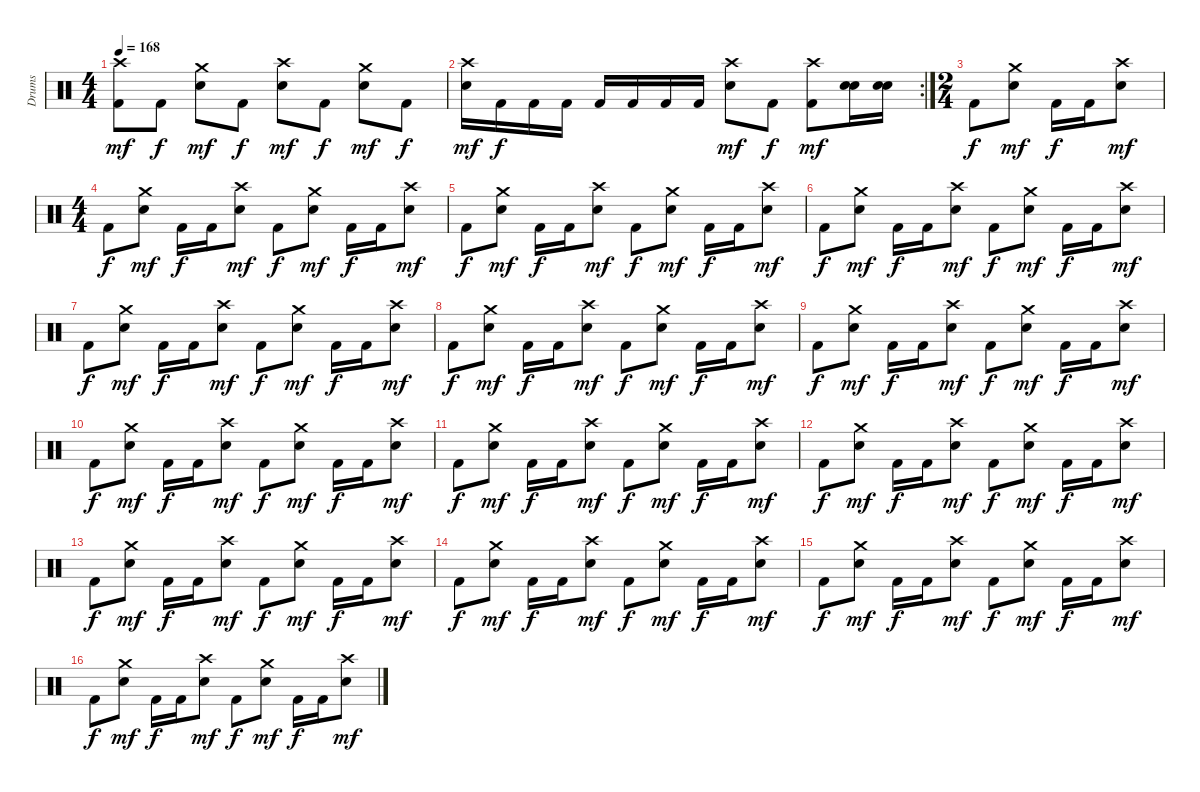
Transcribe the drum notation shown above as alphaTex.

\track ("Drums" "Drums") {instrument percussion}
\staff {score}
\articulation defaults
\ts (4 4)
\tempo 168
\clef neutral
\ks c
("Crash high (hit)" "Kick (hit) 2").8{dy mf} "Kick (hit) 2".8{dy f} ("Crash medium (hit)" "Snare (hit) 2").8{dy mf} "Kick (hit) 2".8{dy f} ("Crash high (hit)" "Snare (hit) 2").8{dy mf} "Kick (hit) 2".8{dy f} ("Crash medium (hit)" "Snare (hit) 2").8{dy mf} "Kick (hit) 2".8{dy f} |
\rc 2
("Crash high (hit)" "Snare (hit) 2").16{dy mf} "Kick (hit) 2".16{dy f} "Kick (hit) 2".16 "Kick (hit) 2".16 "Kick (hit) 2".16 "Kick (hit) 2".16 "Kick (hit) 2".16 "Kick (hit) 2".16 ("Crash high (hit)" "Snare (hit) 2").8{dy mf} "Kick (hit) 2".8{dy f} ("Crash high (hit)" "Kick (hit) 2").8{dy mf} ("Snare (hit) 2" "Snare (hit) 2").16 ("Snare (hit) 2" "Snare (hit) 2").16 |
\ts (2 4)
"Kick (hit) 2".8{dy f} ("Crash medium (hit)" "Snare (hit) 2").8{dy mf} "Kick (hit) 2".16{dy f} "Kick (hit) 2".16 ("Crash high (hit)" "Snare (hit) 2").8{dy mf} |
\ts (4 4)
"Kick (hit) 2".8{dy f} ("Crash medium (hit)" "Snare (hit) 2").8{dy mf} "Kick (hit) 2".16{dy f} "Kick (hit) 2".16 ("Crash high (hit)" "Snare (hit) 2").8{dy mf} "Kick (hit) 2".8{dy f} ("Crash medium (hit)" "Snare (hit) 2").8{dy mf} "Kick (hit) 2".16{dy f} "Kick (hit) 2".16 ("Crash high (hit)" "Snare (hit) 2").8{dy mf} |
"Kick (hit) 2".8{dy f} ("Crash medium (hit)" "Snare (hit) 2").8{dy mf} "Kick (hit) 2".16{dy f} "Kick (hit) 2".16 ("Crash high (hit)" "Snare (hit) 2").8{dy mf} "Kick (hit) 2".8{dy f} ("Crash medium (hit)" "Snare (hit) 2").8{dy mf} "Kick (hit) 2".16{dy f} "Kick (hit) 2".16 ("Crash high (hit)" "Snare (hit) 2").8{dy mf} |
"Kick (hit) 2".8{dy f} ("Crash medium (hit)" "Snare (hit) 2").8{dy mf} "Kick (hit) 2".16{dy f} "Kick (hit) 2".16 ("Crash high (hit)" "Snare (hit) 2").8{dy mf} "Kick (hit) 2".8{dy f} ("Crash medium (hit)" "Snare (hit) 2").8{dy mf} "Kick (hit) 2".16{dy f} "Kick (hit) 2".16 ("Crash high (hit)" "Snare (hit) 2").8{dy mf} |
"Kick (hit) 2".8{dy f} ("Crash medium (hit)" "Snare (hit) 2").8{dy mf} "Kick (hit) 2".16{dy f} "Kick (hit) 2".16 ("Crash high (hit)" "Snare (hit) 2").8{dy mf} "Kick (hit) 2".8{dy f} ("Crash medium (hit)" "Snare (hit) 2").8{dy mf} "Kick (hit) 2".16{dy f} "Kick (hit) 2".16 ("Crash high (hit)" "Snare (hit) 2").8{dy mf} |
"Kick (hit) 2".8{dy f} ("Crash medium (hit)" "Snare (hit) 2").8{dy mf} "Kick (hit) 2".16{dy f} "Kick (hit) 2".16 ("Crash high (hit)" "Snare (hit) 2").8{dy mf} "Kick (hit) 2".8{dy f} ("Crash medium (hit)" "Snare (hit) 2").8{dy mf} "Kick (hit) 2".16{dy f} "Kick (hit) 2".16 ("Crash high (hit)" "Snare (hit) 2").8{dy mf} |
"Kick (hit) 2".8{dy f} ("Crash medium (hit)" "Snare (hit) 2").8{dy mf} "Kick (hit) 2".16{dy f} "Kick (hit) 2".16 ("Crash high (hit)" "Snare (hit) 2").8{dy mf} "Kick (hit) 2".8{dy f} ("Crash medium (hit)" "Snare (hit) 2").8{dy mf} "Kick (hit) 2".16{dy f} "Kick (hit) 2".16 ("Crash high (hit)" "Snare (hit) 2").8{dy mf} |
"Kick (hit) 2".8{dy f} ("Crash medium (hit)" "Snare (hit) 2").8{dy mf} "Kick (hit) 2".16{dy f} "Kick (hit) 2".16 ("Crash high (hit)" "Snare (hit) 2").8{dy mf} "Kick (hit) 2".8{dy f} ("Crash medium (hit)" "Snare (hit) 2").8{dy mf} "Kick (hit) 2".16{dy f} "Kick (hit) 2".16 ("Crash high (hit)" "Snare (hit) 2").8{dy mf} |
"Kick (hit) 2".8{dy f} ("Crash medium (hit)" "Snare (hit) 2").8{dy mf} "Kick (hit) 2".16{dy f} "Kick (hit) 2".16 ("Crash high (hit)" "Snare (hit) 2").8{dy mf} "Kick (hit) 2".8{dy f} ("Crash medium (hit)" "Snare (hit) 2").8{dy mf} "Kick (hit) 2".16{dy f} "Kick (hit) 2".16 ("Crash high (hit)" "Snare (hit) 2").8{dy mf} |
"Kick (hit) 2".8{dy f} ("Crash medium (hit)" "Snare (hit) 2").8{dy mf} "Kick (hit) 2".16{dy f} "Kick (hit) 2".16 ("Crash high (hit)" "Snare (hit) 2").8{dy mf} "Kick (hit) 2".8{dy f} ("Crash medium (hit)" "Snare (hit) 2").8{dy mf} "Kick (hit) 2".16{dy f} "Kick (hit) 2".16 ("Crash high (hit)" "Snare (hit) 2").8{dy mf} |
"Kick (hit) 2".8{dy f} ("Crash medium (hit)" "Snare (hit) 2").8{dy mf} "Kick (hit) 2".16{dy f} "Kick (hit) 2".16 ("Crash high (hit)" "Snare (hit) 2").8{dy mf} "Kick (hit) 2".8{dy f} ("Crash medium (hit)" "Snare (hit) 2").8{dy mf} "Kick (hit) 2".16{dy f} "Kick (hit) 2".16 ("Crash high (hit)" "Snare (hit) 2").8{dy mf} |
"Kick (hit) 2".8{dy f} ("Crash medium (hit)" "Snare (hit) 2").8{dy mf} "Kick (hit) 2".16{dy f} "Kick (hit) 2".16 ("Crash high (hit)" "Snare (hit) 2").8{dy mf} "Kick (hit) 2".8{dy f} ("Crash medium (hit)" "Snare (hit) 2").8{dy mf} "Kick (hit) 2".16{dy f} "Kick (hit) 2".16 ("Crash high (hit)" "Snare (hit) 2").8{dy mf} |
"Kick (hit) 2".8{dy f} ("Crash medium (hit)" "Snare (hit) 2").8{dy mf} "Kick (hit) 2".16{dy f} "Kick (hit) 2".16 ("Crash high (hit)" "Snare (hit) 2").8{dy mf} "Kick (hit) 2".8{dy f} ("Crash medium (hit)" "Snare (hit) 2").8{dy mf} "Kick (hit) 2".16{dy f} "Kick (hit) 2".16 ("Crash high (hit)" "Snare (hit) 2").8{dy mf} |
"Kick (hit) 2".8{dy f} ("Crash medium (hit)" "Snare (hit) 2").8{dy mf} "Kick (hit) 2".16{dy f} "Kick (hit) 2".16 ("Crash high (hit)" "Snare (hit) 2").8{dy mf} "Kick (hit) 2".8{dy f} ("Crash medium (hit)" "Snare (hit) 2").8{dy mf} "Kick (hit) 2".16{dy f} "Kick (hit) 2".16 ("Crash high (hit)" "Snare (hit) 2").8{dy mf}
